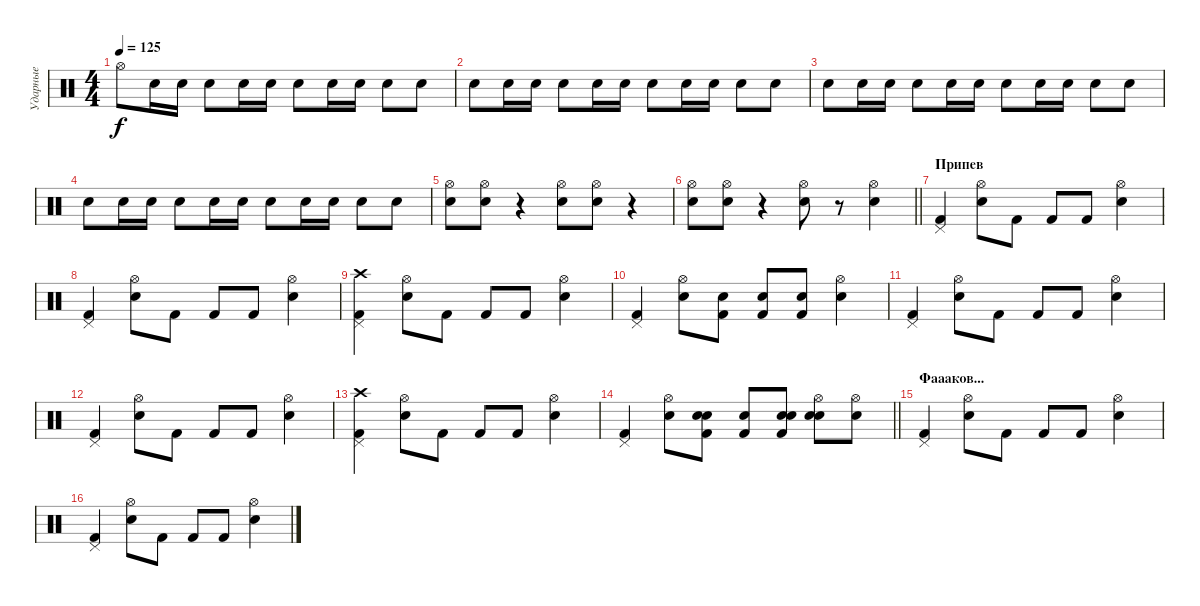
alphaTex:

\track ("Ударные" "Ударные") {instrument percussion}
\staff {score}
\articulation defaults
\ts (4 4)
\tempo 125
\clef neutral
\ks c "Hi-Hat (open)".8{dy f} "Snare (hit) 2".16 "Snare (hit) 2".16 "Snare (hit) 2".8 "Snare (hit) 2".16 "Snare (hit) 2".16 "Snare (hit) 2".8 "Snare (hit) 2".16 "Snare (hit) 2".16 "Snare (hit) 2".8 "Snare (hit) 2".8
|
"Electric Snare (hit)".8 "Electric Snare (hit)".16 "Electric Snare (hit)".16 "Electric Snare (hit)".8 "Electric Snare (hit)".16 "Electric Snare (hit)".16 "Electric Snare (hit)".8 "Electric Snare (hit)".16 "Electric Snare (hit)".16 "Electric Snare (hit)".8 "Electric Snare (hit)".8 |
"Snare (hit) 2".8 "Snare (hit) 2".16 "Snare (hit) 2".16 "Snare (hit) 2".8 "Snare (hit) 2".16 "Snare (hit) 2".16 "Snare (hit) 2".8 "Snare (hit) 2".16 "Snare (hit) 2".16 "Snare (hit) 2".8 "Snare (hit) 2".8 |
"Electric Snare (hit)".8 "Electric Snare (hit)".16 "Electric Snare (hit)".16 "Electric Snare (hit)".8 "Electric Snare (hit)".16 "Electric Snare (hit)".16 "Electric Snare (hit)".8 "Electric Snare (hit)".16 "Electric Snare (hit)".16 "Electric Snare (hit)".8 "Electric Snare (hit)".8 |
("Hi-Hat (open)" "Snare (hit) 2").8 ("Hi-Hat (open)" "Snare (hit) 2").8 r.4 ("Hi-Hat (open)" "Snare (hit) 2").8 ("Hi-Hat (open)" "Snare (hit) 2").8 r.4 |
\barLineRight lightlight
("Hi-Hat (open)" "Snare (hit) 2").8 ("Hi-Hat (open)" "Snare (hit) 2").8 r.4 ("Hi-Hat (open)" "Snare (hit) 2").8 r.8 ("Hi-Hat (open)" "Snare (hit) 2").4 |
\section ("" "Припев")
("Kick (hit) 2" "Pedal Hi-Hat (hit)").4 ("Electric Snare (hit)" "Hi-Hat (open)").8 "Kick (hit) 2".8 "Kick (hit) 2".8 "Kick (hit) 2".8 ("Electric Snare (hit)" "Hi-Hat (open)").4 |
("Kick (hit) 2" "Pedal Hi-Hat (hit)").4 ("Electric Snare (hit)" "Hi-Hat (open)").8 "Kick (hit) 2".8 "Kick (hit) 2".8 "Kick (hit) 2".8 ("Electric Snare (hit)" "Hi-Hat (open)").4 |
("Kick (hit) 2" "Crash high (hit)" "Pedal Hi-Hat (hit)").4 ("Electric Snare (hit)" "Hi-Hat (open)").8 "Kick (hit) 2".8 "Kick (hit) 2".8 "Kick (hit) 2".8 ("Electric Snare (hit)" "Hi-Hat (open)").4 |
("Kick (hit) 2" "Pedal Hi-Hat (hit)").4 ("Electric Snare (hit)" "Hi-Hat (open)").8 ("Electric Snare (hit)" "Kick (hit) 2").8 ("Electric Snare (hit)" "Kick (hit) 2").8 ("Electric Snare (hit)" "Kick (hit) 2").8 ("Electric Snare (hit)" "Hi-Hat (open)").4 |
("Kick (hit) 2" "Pedal Hi-Hat (hit)").4 ("Electric Snare (hit)" "Hi-Hat (open)").8 "Kick (hit) 2".8 "Kick (hit) 2".8 "Kick (hit) 2".8 ("Electric Snare (hit)" "Hi-Hat (open)").4 |
("Kick (hit) 2" "Pedal Hi-Hat (hit)").4 ("Electric Snare (hit)" "Hi-Hat (open)").8 "Kick (hit) 2".8 "Kick (hit) 2".8 "Kick (hit) 2".8 ("Electric Snare (hit)" "Hi-Hat (open)").4 |
("Kick (hit) 2" "Crash high (hit)" "Pedal Hi-Hat (hit)").4 ("Electric Snare (hit)" "Hi-Hat (open)").8 "Kick (hit) 2".8 "Kick (hit) 2".8 "Kick (hit) 2".8 ("Electric Snare (hit)" "Hi-Hat (open)").4 |
\barLineRight lightlight
("Kick (hit) 2" "Pedal Hi-Hat (hit)").4 ("Electric Snare (hit)" "Hi-Hat (open)").8 ("Snare (hit) 2" "Electric Snare (hit)" "Kick (hit) 2").8 ("Electric Snare (hit)" "Kick (hit) 2").8 ("Snare (hit) 2" "Electric Snare (hit)" "Kick (hit) 2").8 ("Snare (hit) 2" "Electric Snare (hit)" "Hi-Hat (open)").8 ("Hi-Hat (open)" "Snare (hit) 2").8 |
\section ("" "Фаааков...")
("Kick (hit) 2" "Pedal Hi-Hat (hit)").4 ("Electric Snare (hit)" "Hi-Hat (open)").8 "Kick (hit) 2".8 "Kick (hit) 2".8 "Kick (hit) 2".8 ("Electric Snare (hit)" "Hi-Hat (open)").4 |
("Kick (hit) 2" "Pedal Hi-Hat (hit)").4 ("Electric Snare (hit)" "Hi-Hat (open)").8 "Kick (hit) 2".8 "Kick (hit) 2".8 "Kick (hit) 2".8 ("Electric Snare (hit)" "Hi-Hat (open)").4
